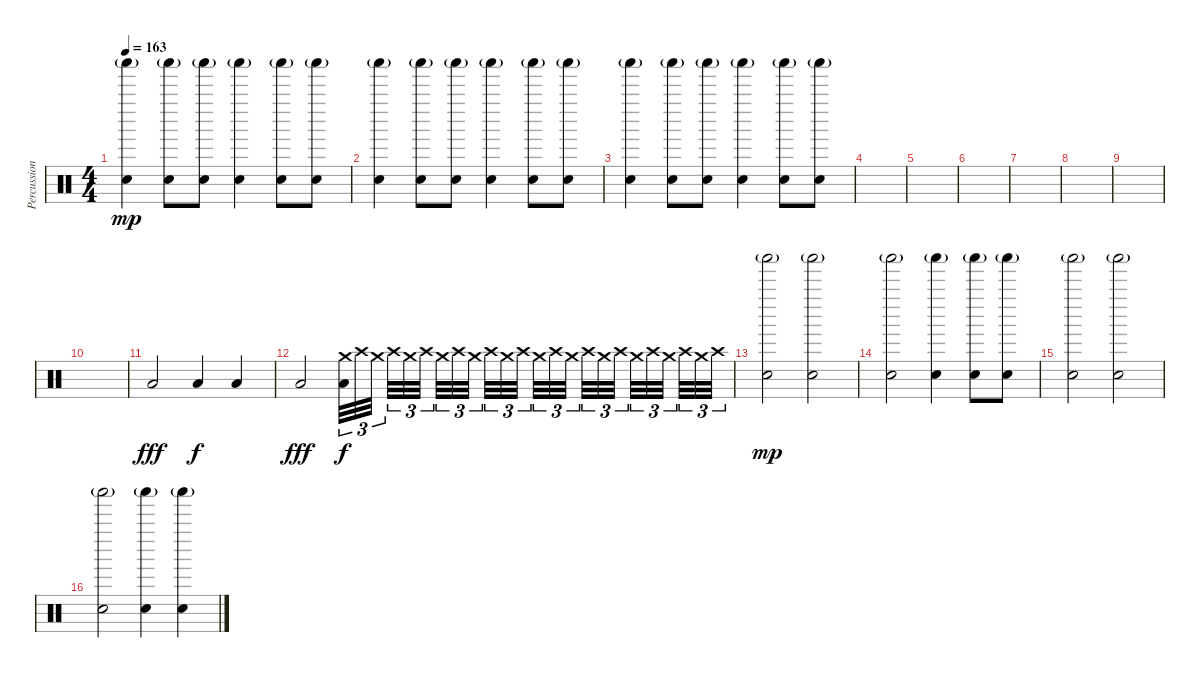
\track ("Percussion" "Percussion") {instrument percussion}
\staff {score}
\articulation defaults
\ts (4 4)
\tempo 163
\clef neutral
\ks c
("Shaker (hit)"{g} "Snare (hit) 2").4{dy mp} ("Shaker (hit)"{g} "Snare (hit) 2").8 ("Shaker (hit)"{g} "Snare (hit) 2").8 ("Shaker (hit)"{g} "Snare (hit) 2").4 ("Shaker (hit)"{g} "Snare (hit) 2").8 ("Shaker (hit)"{g} "Snare (hit) 2").8 |
("Shaker (hit)"{g} "Snare (hit) 2").4{volume 3} ("Shaker (hit)"{g} "Snare (hit) 2").8 ("Shaker (hit)"{g} "Snare (hit) 2").8 ("Shaker (hit)"{g} "Snare (hit) 2").4 ("Shaker (hit)"{g} "Snare (hit) 2").8 ("Shaker (hit)"{g} "Snare (hit) 2").8 |
("Shaker (hit)"{g} "Snare (hit) 2").4 ("Shaker (hit)"{g} "Snare (hit) 2").8 ("Shaker (hit)"{g} "Snare (hit) 2").8 ("Shaker (hit)"{g} "Snare (hit) 2").4 ("Shaker (hit)"{g} "Snare (hit) 2").8 ("Shaker (hit)"{g} "Snare (hit) 2").8 |
|
|
|
|
|
|
|
"Low Floor Tom (hit)".2{dy fff volume 12} "Low Floor Tom (hit)".4{dy f} "Low Floor Tom (hit)".4 |
"Low Floor Tom (hit)".2{dy fff} ("Crash medium (hit)" "Low Floor Tom (hit)").32{tu (3 2) dy f} "Crash high (hit)".32{tu (3 2)} "Crash medium (hit)".32{tu (3 2)} "Crash high (hit)".32{tu (3 2)} "Crash medium (hit)".32{tu (3 2)} "Crash high (hit)".32{tu (3 2)} "Crash medium (hit)".32{tu (3 2)} "Crash high (hit)".32{tu (3 2)} "Crash medium (hit)".32{tu (3 2)} "Crash high (hit)".32{tu (3 2)} "Crash medium (hit)".32{tu (3 2)} "Crash high (hit)".32{tu (3 2)} "Crash medium (hit)".32{tu (3 2)} "Crash high (hit)".32{tu (3 2)} "Crash medium (hit)".32{tu (3 2)} "Crash high (hit)".32{tu (3 2)} "Crash medium (hit)".32{tu (3 2)} "Crash high (hit)".32{tu (3 2)} "Crash medium (hit)".32{tu (3 2)} "Crash high (hit)".32{tu (3 2)} "Crash medium (hit)".32{tu (3 2)} "Crash high (hit)".32{tu (3 2)} "Crash medium (hit)".32{tu (3 2)} "Crash high (hit)".32{tu (3 2)} |
("Shaker (hit)"{g} "Snare (hit) 2").2{dy mp volume 8} ("Shaker (hit)"{g} "Snare (hit) 2").2 |
("Shaker (hit)"{g} "Snare (hit) 2").2 ("Shaker (hit)"{g} "Snare (hit) 2").4 ("Shaker (hit)"{g} "Snare (hit) 2").8 ("Shaker (hit)"{g} "Snare (hit) 2").8 |
("Shaker (hit)"{g} "Snare (hit) 2").2 ("Shaker (hit)"{g} "Snare (hit) 2").2 |
("Shaker (hit)"{g} "Snare (hit) 2").2 ("Shaker (hit)"{g} "Snare (hit) 2").4 ("Shaker (hit)"{g} "Snare (hit) 2").4
